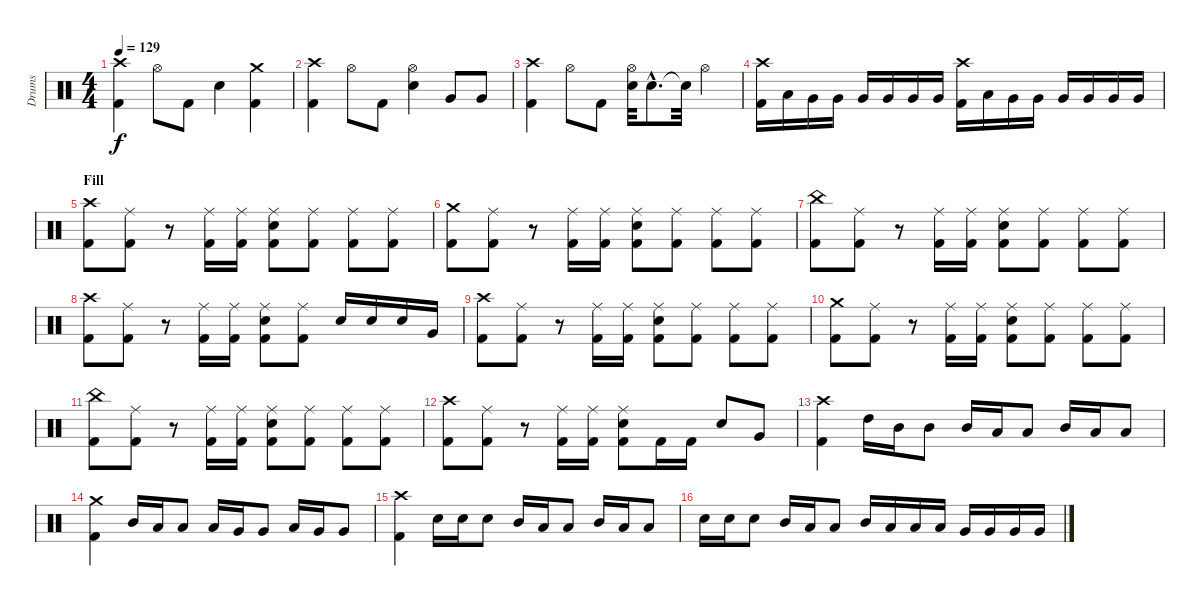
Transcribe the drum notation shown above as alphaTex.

\track ("Drums" "Drums") {instrument percussion}
\staff {score}
\articulation defaults
\ts (4 4)
\tempo 129
\clef neutral
\ks c
("Crash high (hit)" "Kick (hit) 2").4{dy f} "Hi-Hat (open)".8 "Kick (hit) 2".8 "Snare (hit) 2".4 ("Crash medium (hit)" "Kick (hit) 2").4 |
("Crash high (hit)" "Kick (hit) 2").4 "Hi-Hat (open)".8 "Kick (hit) 2".8 ("Hi-Hat (open)" "Snare (hit) 2").4 "Very Low Tom (hit)".8 "Very Low Tom (hit)".8 |
("Crash high (hit)" "Kick (hit) 2").4 "Hi-Hat (open)".8 "Kick (hit) 2".8 ("Hi-Hat (open)" "Snare (hit) 2").32 "Snare (hit) 2"{hac}.8{d} "Snare (hit)"{t}.32 "Hi-Hat (open)".4 |
("Crash high (hit)" "Kick (hit) 2").16 "Low Tom (hit)".16 "Very Low Tom (hit)".16 "Very Low Tom (hit)".16 "Very Low Tom (hit)".16 "Very Low Tom (hit)".16 "Very Low Tom (hit)".16 "Very Low Tom (hit)".16 ("Crash high (hit)" "Kick (hit) 2").16 "Low Tom (hit)".16 "Very Low Tom (hit)".16 "Very Low Tom (hit)".16 "Very Low Tom (hit)".16 "Very Low Tom (hit)".16 "Very Low Tom (hit)".16 "Very Low Tom (hit)".16 |
\section ("" "Fill")
("Crash high (hit)" "Kick (hit) 2").8 ("Ride (middle)" "Kick (hit) 2").8 r.8 ("Ride (middle)" "Kick (hit) 2").16 ("Ride (middle)" "Kick (hit) 2").16 ("Ride (middle)" "Snare (hit) 2" "Kick (hit) 2").8 ("Ride (middle)" "Kick (hit) 2").8 ("Ride (middle)" "Kick (hit) 2").8 ("Ride (middle)" "Kick (hit) 2").8 |
("Crash medium (hit)" "Kick (hit) 2").8 ("Ride (middle)" "Kick (hit) 2").8 r.8 ("Ride (middle)" "Kick (hit) 2").16 ("Ride (middle)" "Kick (hit) 2").16 ("Ride (middle)" "Snare (hit) 2" "Kick (hit) 2").8 ("Ride (middle)" "Kick (hit) 2").8 ("Ride (middle)" "Kick (hit) 2").8 ("Ride (middle)" "Kick (hit) 2").8 |
("China (hit)" "Kick (hit) 2").8 ("Ride (middle)" "Kick (hit) 2").8 r.8 ("Ride (middle)" "Kick (hit) 2").16 ("Ride (middle)" "Kick (hit) 2").16 ("Ride (middle)" "Snare (hit) 2" "Kick (hit) 2").8 ("Ride (middle)" "Kick (hit) 2").8 ("Ride (middle)" "Kick (hit) 2").8 ("Ride (middle)" "Kick (hit) 2").8 |
("Crash high (hit)" "Kick (hit) 2").8 ("Ride (middle)" "Kick (hit) 2").8 r.8 ("Ride (middle)" "Kick (hit) 2").16 ("Ride (middle)" "Kick (hit) 2").16 ("Ride (middle)" "Snare (hit) 2" "Kick (hit) 2").8 ("Ride (middle)" "Kick (hit) 2").8 "Snare (hit) 2".16 "Snare (hit) 2".16 "Snare (hit) 2".16 "Very Low Tom (hit)".16 |
("Crash high (hit)" "Kick (hit) 2").8 ("Ride (middle)" "Kick (hit) 2").8 r.8 ("Ride (middle)" "Kick (hit) 2").16 ("Ride (middle)" "Kick (hit) 2").16 ("Ride (middle)" "Snare (hit) 2" "Kick (hit) 2").8 ("Ride (middle)" "Kick (hit) 2").8 ("Ride (middle)" "Kick (hit) 2").8 ("Ride (middle)" "Kick (hit) 2").8 |
("Crash medium (hit)" "Kick (hit) 2").8 ("Ride (middle)" "Kick (hit) 2").8 r.8 ("Ride (middle)" "Kick (hit) 2").16 ("Ride (middle)" "Kick (hit) 2").16 ("Ride (middle)" "Snare (hit) 2" "Kick (hit) 2").8 ("Ride (middle)" "Kick (hit) 2").8 ("Ride (middle)" "Kick (hit) 2").8 ("Ride (middle)" "Kick (hit) 2").8 |
("China (hit)" "Kick (hit) 2").8 ("Ride (middle)" "Kick (hit) 2").8 r.8 ("Ride (middle)" "Kick (hit) 2").16 ("Ride (middle)" "Kick (hit) 2").16 ("Ride (middle)" "Snare (hit) 2" "Kick (hit) 2").8 ("Ride (middle)" "Kick (hit) 2").8 ("Ride (middle)" "Kick (hit) 2").8 ("Ride (middle)" "Kick (hit) 2").8 |
("Crash high (hit)" "Kick (hit) 2").8 ("Ride (middle)" "Kick (hit) 2").8 r.8 ("Ride (middle)" "Kick (hit) 2").16 ("Ride (middle)" "Kick (hit) 2").16 ("Ride (middle)" "Snare (hit) 2" "Kick (hit) 2").8 "Kick (hit) 2".16 "Kick (hit) 2".16 "Snare (hit) 2".8 "Very Low Tom (hit)".8 |
("Crash high (hit)" "Kick (hit) 2").4 "High Tom (hit)".16 "Mid Tom (hit)".16 "Mid Tom (hit)".8 "Mid Tom (hit)".16 "Low Tom (hit)".16 "Low Tom (hit)".8 "Mid Tom (hit)".16 "Low Tom (hit)".16 "Low Tom (hit)".8 |
("Crash medium (hit)" "Kick (hit) 2").4 "Mid Tom (hit)".16 "Low Tom (hit)".16 "Low Tom (hit)".8 "Low Tom (hit)".16 "Very Low Tom (hit)".16 "Very Low Tom (hit)".8 "Low Tom (hit)".16 "Very Low Tom (hit)".16 "Very Low Tom (hit)".8 |
("Crash high (hit)" "Kick (hit) 2").4 "Snare (hit) 2".16 "Snare (hit) 2".16 "Snare (hit) 2".8 "Mid Tom (hit)".16 "Low Tom (hit)".16 "Low Tom (hit)".8 "Mid Tom (hit)".16 "Low Tom (hit)".16 "Low Tom (hit)".8 |
"Snare (hit) 2".16 "Snare (hit) 2".16 "Snare (hit) 2".8 "Mid Tom (hit)".16 "Low Tom (hit)".16 "Low Tom (hit)".8 "Mid Tom (hit)".16 "Low Tom (hit)".16 "Low Tom (hit)".16 "Low Tom (hit)".16 "Very Low Tom (hit)".16 "Very Low Tom (hit)".16 "Very Low Tom (hit)".16 "Very Low Tom (hit)".16
